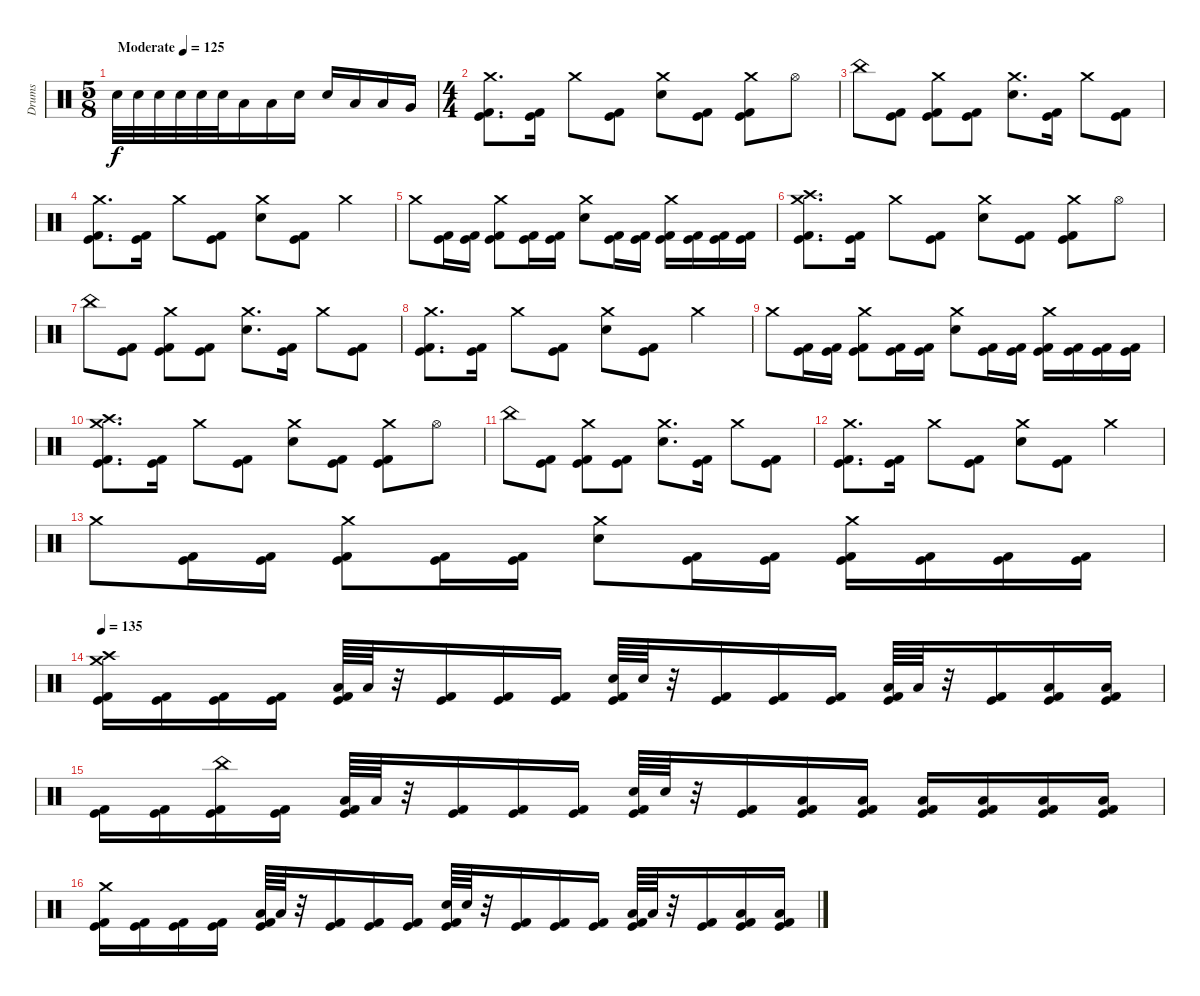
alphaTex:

\track ("Drums" "Drums") {instrument percussion}
\staff {score}
\articulation defaults
\ts (5 8)
\tempo (125 "Moderate")
\clef neutral
\ks c "Electric Snare (hit)".32{dy f} "Electric Snare (hit)".32 "Electric Snare (hit)".32 "Electric Snare (hit)".32 "Electric Snare (hit)".32 "Electric Snare (hit)".32 "Low Tom (hit)".16 "Low Tom (hit)".16 "Electric Snare (hit)".16 "Electric Snare (hit)".16 "Low Tom (hit)".16 "Low Tom (hit)".16 "Very Low Tom (hit)".16
|
\ts (4 4)
("Crash medium (hit)" "Kick (hit)" "Kick (hit) 2").8{d} ("Kick (hit)" "Kick (hit) 2").16 "Crash medium (hit)".8 ("Kick (hit)" "Kick (hit) 2").8 ("Crash medium (hit)" "Electric Snare (hit)").8 ("Kick (hit)" "Kick (hit) 2").8 ("Crash medium (hit)" "Kick (hit)" "Kick (hit) 2").8 "Hi-Hat (open)".8 |
"China (hit)".8 ("Kick (hit)" "Kick (hit) 2").8 ("Crash medium (hit)" "Kick (hit)" "Kick (hit) 2").8 ("Kick (hit)" "Kick (hit) 2").8 ("Crash medium (hit)" "Electric Snare (hit)").8{d} ("Kick (hit)" "Kick (hit) 2").16 "Crash medium (hit)".8 ("Kick (hit)" "Kick (hit) 2").8 |
("Crash medium (hit)" "Kick (hit)" "Kick (hit) 2").8{d} ("Kick (hit)" "Kick (hit) 2").16 "Crash medium (hit)".8 ("Kick (hit)" "Kick (hit) 2").8 ("Crash medium (hit)" "Electric Snare (hit)").8 ("Kick (hit)" "Kick (hit) 2").8 "Crash medium (hit)".4 |
"Crash medium (hit)".8 ("Kick (hit)" "Kick (hit) 2").16 ("Kick (hit)" "Kick (hit) 2").16 ("Crash medium (hit)" "Kick (hit)" "Kick (hit) 2").8 ("Kick (hit)" "Kick (hit) 2").16 ("Kick (hit)" "Kick (hit) 2").16 ("Crash medium (hit)" "Electric Snare (hit)").8 ("Kick (hit)" "Kick (hit) 2").16 ("Kick (hit)" "Kick (hit) 2").16 ("Crash medium (hit)" "Kick (hit)" "Kick (hit) 2").16 ("Kick (hit)" "Kick (hit) 2").16 ("Kick (hit)" "Kick (hit) 2").16 ("Kick (hit)" "Kick (hit) 2").16 |
("Crash high (hit)" "Crash medium (hit)" "Kick (hit)" "Kick (hit) 2").8{d} ("Kick (hit)" "Kick (hit) 2").16 "Crash medium (hit)".8 ("Kick (hit)" "Kick (hit) 2").8 ("Crash medium (hit)" "Electric Snare (hit)").8 ("Kick (hit)" "Kick (hit) 2").8 ("Crash medium (hit)" "Kick (hit)" "Kick (hit) 2").8 "Hi-Hat (open)".8 |
"China (hit)".8 ("Kick (hit)" "Kick (hit) 2").8 ("Crash medium (hit)" "Kick (hit)" "Kick (hit) 2").8 ("Kick (hit)" "Kick (hit) 2").8 ("Crash medium (hit)" "Electric Snare (hit)").8{d} ("Kick (hit)" "Kick (hit) 2").16 "Crash medium (hit)".8 ("Kick (hit)" "Kick (hit) 2").8 |
("Crash medium (hit)" "Kick (hit)" "Kick (hit) 2").8{d} ("Kick (hit)" "Kick (hit) 2").16 "Crash medium (hit)".8 ("Kick (hit)" "Kick (hit) 2").8 ("Crash medium (hit)" "Electric Snare (hit)").8 ("Kick (hit)" "Kick (hit) 2").8 "Crash medium (hit)".4 |
"Crash medium (hit)".8 ("Kick (hit)" "Kick (hit) 2").16 ("Kick (hit)" "Kick (hit) 2").16 ("Crash medium (hit)" "Kick (hit)" "Kick (hit) 2").8 ("Kick (hit)" "Kick (hit) 2").16 ("Kick (hit)" "Kick (hit) 2").16 ("Crash medium (hit)" "Electric Snare (hit)").8 ("Kick (hit)" "Kick (hit) 2").16 ("Kick (hit)" "Kick (hit) 2").16 ("Crash medium (hit)" "Kick (hit)" "Kick (hit) 2").16 ("Kick (hit)" "Kick (hit) 2").16 ("Kick (hit)" "Kick (hit) 2").16 ("Kick (hit)" "Kick (hit) 2").16 |
("Crash high (hit)" "Crash medium (hit)" "Kick (hit)" "Kick (hit) 2").8{d} ("Kick (hit)" "Kick (hit) 2").16 "Crash medium (hit)".8 ("Kick (hit)" "Kick (hit) 2").8 ("Crash medium (hit)" "Electric Snare (hit)").8 ("Kick (hit)" "Kick (hit) 2").8 ("Crash medium (hit)" "Kick (hit)" "Kick (hit) 2").8 "Hi-Hat (open)".8 |
"China (hit)".8 ("Kick (hit)" "Kick (hit) 2").8 ("Crash medium (hit)" "Kick (hit)" "Kick (hit) 2").8 ("Kick (hit)" "Kick (hit) 2").8 ("Crash medium (hit)" "Electric Snare (hit)").8{d} ("Kick (hit)" "Kick (hit) 2").16 "Crash medium (hit)".8 ("Kick (hit)" "Kick (hit) 2").8 |
("Crash medium (hit)" "Kick (hit)" "Kick (hit) 2").8{d} ("Kick (hit)" "Kick (hit) 2").16 "Crash medium (hit)".8 ("Kick (hit)" "Kick (hit) 2").8 ("Crash medium (hit)" "Electric Snare (hit)").8 ("Kick (hit)" "Kick (hit) 2").8 "Crash medium (hit)".4 |
"Crash medium (hit)".8 ("Kick (hit)" "Kick (hit) 2").16 ("Kick (hit)" "Kick (hit) 2").16 ("Crash medium (hit)" "Kick (hit)" "Kick (hit) 2").8 ("Kick (hit)" "Kick (hit) 2").16 ("Kick (hit)" "Kick (hit) 2").16 ("Crash medium (hit)" "Electric Snare (hit)").8 ("Kick (hit)" "Kick (hit) 2").16 ("Kick (hit)" "Kick (hit) 2").16 ("Crash medium (hit)" "Kick (hit)" "Kick (hit) 2").16 ("Kick (hit)" "Kick (hit) 2").16 ("Kick (hit)" "Kick (hit) 2").16 ("Kick (hit)" "Kick (hit) 2").16 |
\tempo 135
("Crash high (hit)" "Crash medium (hit)" "Kick (hit)" "Kick (hit) 2").16 ("Kick (hit)" "Kick (hit) 2").16 ("Kick (hit)" "Kick (hit) 2").16 ("Kick (hit)" "Kick (hit) 2").16 ("Low Tom (hit)" "Kick (hit)" "Kick (hit) 2").64 "Low Tom (hit)".64 r.32 ("Kick (hit)" "Kick (hit) 2").16 ("Kick (hit)" "Kick (hit) 2").16 ("Kick (hit)" "Kick (hit) 2").16 ("Electric Snare (hit)" "Kick (hit)" "Kick (hit) 2").64 "Electric Snare (hit)".64 r.32 ("Kick (hit)" "Kick (hit) 2").16 ("Kick (hit)" "Kick (hit) 2").16 ("Kick (hit)" "Kick (hit) 2").16 ("Low Tom (hit)" "Kick (hit)" "Kick (hit) 2").64 "Low Tom (hit)".64 r.32 ("Kick (hit)" "Kick (hit) 2").16 ("Low Tom (hit)" "Kick (hit)" "Kick (hit) 2").16 ("Low Tom (hit)" "Kick (hit)" "Kick (hit) 2").16 |
("Kick (hit)" "Kick (hit) 2").16 ("Kick (hit)" "Kick (hit) 2").16 ("China (hit)" "Kick (hit)" "Kick (hit) 2").16 ("Kick (hit)" "Kick (hit) 2").16 ("Low Tom (hit)" "Kick (hit)" "Kick (hit) 2").64 "Low Tom (hit)".64 r.32 ("Kick (hit)" "Kick (hit) 2").16 ("Kick (hit)" "Kick (hit) 2").16 ("Kick (hit)" "Kick (hit) 2").16 ("Electric Snare (hit)" "Kick (hit)" "Kick (hit) 2").64 "Electric Snare (hit)".64 r.32 ("Kick (hit)" "Kick (hit) 2").16 ("Low Tom (hit)" "Kick (hit)" "Kick (hit) 2").16 ("Low Tom (hit)" "Kick (hit)" "Kick (hit) 2").16 ("Low Tom (hit)" "Kick (hit)" "Kick (hit) 2").16 ("Low Tom (hit)" "Kick (hit)" "Kick (hit) 2").16 ("Low Tom (hit)" "Kick (hit)" "Kick (hit) 2").16 ("Low Tom (hit)" "Kick (hit)" "Kick (hit) 2").16 |
("Crash medium (hit)" "Kick (hit)" "Kick (hit) 2").16 ("Kick (hit)" "Kick (hit) 2").16 ("Kick (hit)" "Kick (hit) 2").16 ("Kick (hit)" "Kick (hit) 2").16 ("Low Tom (hit)" "Kick (hit)" "Kick (hit) 2").64 "Low Tom (hit)".64 r.32 ("Kick (hit)" "Kick (hit) 2").16 ("Kick (hit)" "Kick (hit) 2").16 ("Kick (hit)" "Kick (hit) 2").16 ("Electric Snare (hit)" "Kick (hit)" "Kick (hit) 2").64 "Electric Snare (hit)".64 r.32 ("Kick (hit)" "Kick (hit) 2").16 ("Kick (hit)" "Kick (hit) 2").16 ("Kick (hit)" "Kick (hit) 2").16 ("Low Tom (hit)" "Kick (hit)" "Kick (hit) 2").64 "Low Tom (hit)".64 r.32 ("Kick (hit)" "Kick (hit) 2").16 ("Low Tom (hit)" "Kick (hit)" "Kick (hit) 2").16 ("Low Tom (hit)" "Kick (hit)" "Kick (hit) 2").16
